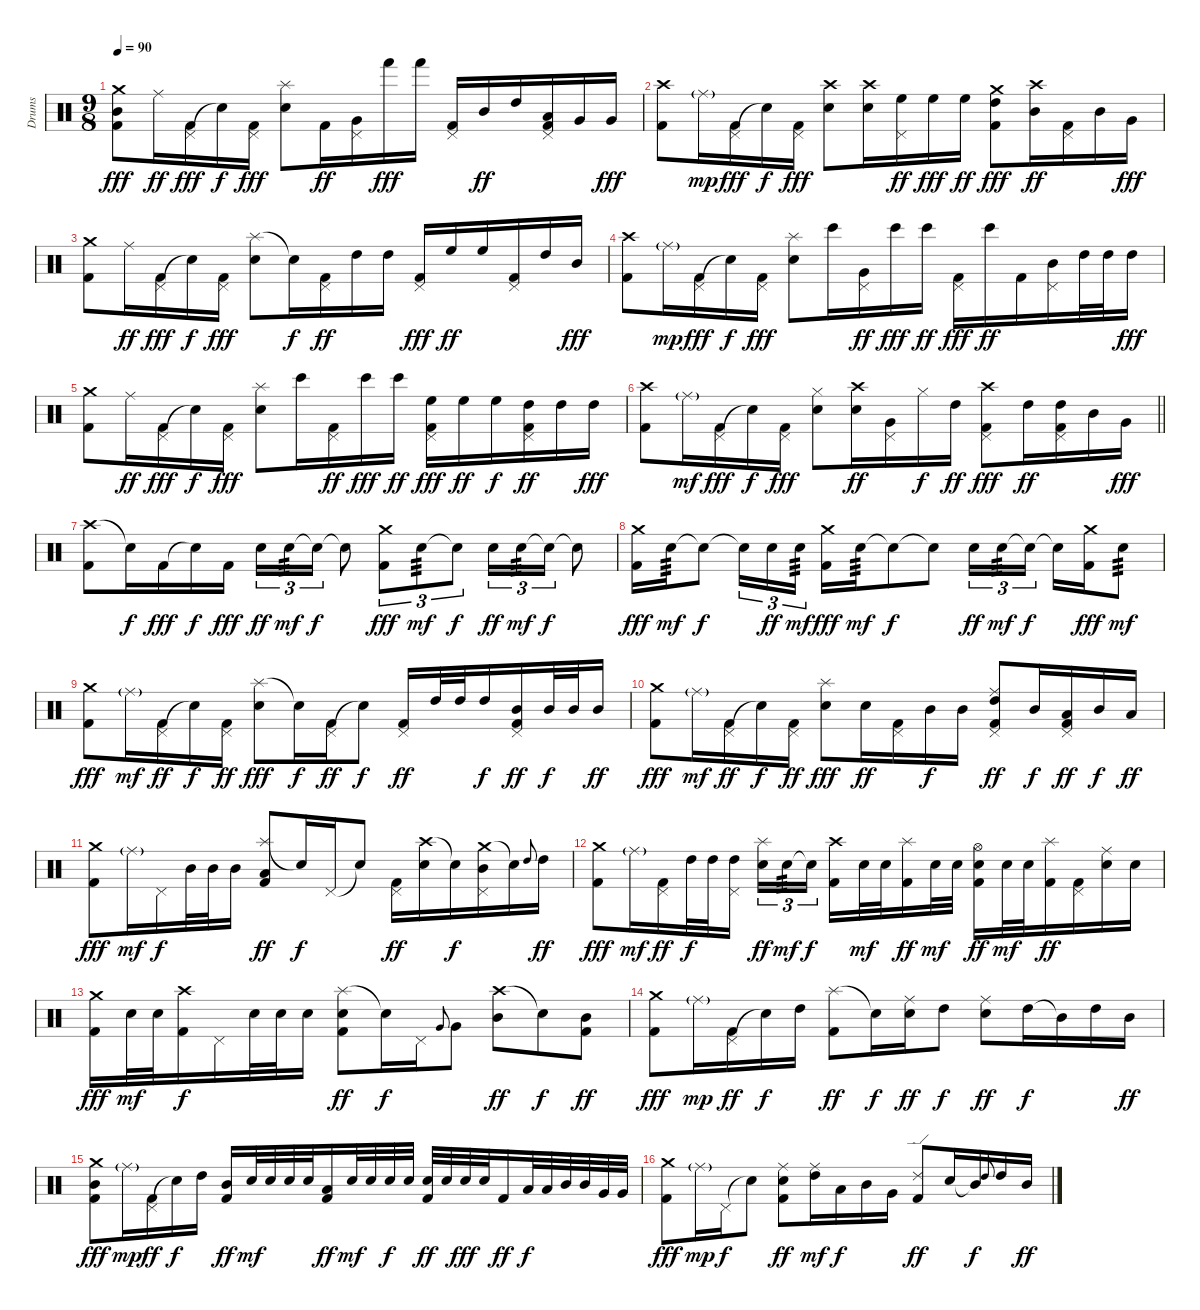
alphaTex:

\track ("Drums" "Drums") {instrument percussion}
\staff {score}
\articulation defaults
\ts (9 8)
\tempo 90
\clef neutral
\ks c
("Crash medium (hit)" "Mid Tom (hit)" "Kick (hit) 2").8{dy fff} "Ride (middle)".16{dy ff} ("Pedal Hi-Hat (hit)" "Kick (hit) 2").16{dy fff} "Snare (hit)"{t}.16{dy f} ("Pedal Hi-Hat (hit)" "Kick (hit) 2").16{dy fff} ("Splash (hit)" "Snare (hit) 2").8 "Kick (hit) 2".16{dy ff} ("Pedal Hi-Hat (hit)" "Very Low Tom (hit)").16 "Hand (hit)".16{dy fff} "Hand (hit)".16 ("Pedal Hi-Hat (hit)" "Kick (hit) 2").16 "Mid Tom (hit)".16{dy ff} "High Tom (hit)".16 ("Pedal Hi-Hat (hit)" "Low Tom (hit)" "Kick (hit) 2").16 "Very Low Tom (hit)".16 "Very Low Tom (hit)".16{dy fff} |
("Crash high (hit)" "Kick (hit) 2").8 "Ride (middle)"{g}.16{dy mp} ("Pedal Hi-Hat (hit)" "Kick (hit) 2").16{dy fff} "Snare (hit)"{t}.16{dy f} ("Pedal Hi-Hat (hit)" "Kick (hit) 2").16{dy fff} ("Crash high (hit)" "Snare (hit) 2").8 ("Crash high (hit)" "Snare (hit) 2").16 ("Pedal Hi-Hat (hit)" "High Floor Tom (hit)").16{dy ff} "High Floor Tom (hit)".16{dy fff} "High Floor Tom (hit)".16{dy ff} ("Crash medium (hit)" "High Tom (hit)" "Kick (hit) 2").8{dy fff} ("Crash high (hit)" "Mid Tom (hit)").16{dy ff} ("Pedal Hi-Hat (hit)" "Kick (hit) 2").16 "Mid Tom (hit)".16 "Very Low Tom (hit)".16{dy fff} |
("Crash medium (hit)" "Kick (hit) 2").8 "Ride (middle)".16{dy ff} ("Pedal Hi-Hat (hit)" "Kick (hit) 2").16{dy fff} "Snare (hit)"{t}.16{dy f} ("Pedal Hi-Hat (hit)" "Kick (hit) 2").16{dy fff} ("Splash (hit)" "Snare (hit) 2").8 "Snare (hit)"{t}.16{dy f} ("Pedal Hi-Hat (hit)" "Kick (hit) 2").16{dy ff} "High Tom (hit)".16 "High Tom (hit)".16 ("Pedal Hi-Hat (hit)" "Kick (hit) 2").16{dy fff} "High Floor Tom (hit)".16{dy ff} "High Floor Tom (hit)".16 ("Pedal Hi-Hat (hit)" "Kick (hit) 2").16 "High Tom (hit)".16 "Mid Tom (hit)".16{dy fff} |
("Crash high (hit)" "Kick (hit) 2").8 "Ride (middle)"{g}.16{dy mp} ("Pedal Hi-Hat (hit)" "Kick (hit) 2").16{dy fff} "Snare (hit)"{t}.16{dy f} ("Pedal Hi-Hat (hit)" "Kick (hit) 2").16{dy fff} ("Splash (hit)" "Snare (hit) 2").8 "Bongo High (hit)".16 ("Pedal Hi-Hat (hit)" "Very Low Tom (hit)").16{dy ff} "Bongo High (hit)".16{dy fff} "Bongo High (hit)".16{dy ff} ("Pedal Hi-Hat (hit)" "Kick (hit) 2").16{dy fff} "Bongo High (hit)".16{dy ff} "Kick (hit) 2".16 ("Pedal Hi-Hat (hit)" "Mid Tom (hit)").16 "High Tom (hit)".32 "High Tom (hit)".32 "High Tom (hit)".16{dy fff} |
("Crash medium (hit)" "Kick (hit) 2").8 "Ride (middle)".16{dy ff} ("Pedal Hi-Hat (hit)" "Kick (hit) 2").16{dy fff} "Snare (hit)"{t}.16{dy f} ("Pedal Hi-Hat (hit)" "Kick (hit) 2").16{dy fff} ("Splash (hit)" "Snare (hit) 2").8 "Bongo High (hit)".16 ("Pedal Hi-Hat (hit)" "Kick (hit) 2").16{dy ff} "Bongo High (hit)".16{dy fff} "Bongo High (hit)".16{dy ff} ("Pedal Hi-Hat (hit)" "High Floor Tom (hit)" "Kick (hit) 2").16{dy fff} "High Floor Tom (hit)".16{dy ff} "High Floor Tom (hit)".16{dy f} ("Pedal Hi-Hat (hit)" "High Tom (hit)" "Kick (hit) 2").16{dy ff} "High Tom (hit)".16 "High Tom (hit)".16{dy fff} |
\barLineRight lightlight
("Crash high (hit)" "Kick (hit) 2").8 "Ride (middle)"{g}.16{dy mf} ("Pedal Hi-Hat (hit)" "Kick (hit) 2").16{dy fff} "Snare (hit)"{t}.16{dy f} ("Pedal Hi-Hat (hit)" "Kick (hit) 2").16{dy fff} ("Hi-Hat (closed)" "Snare (hit) 2").8 ("Crash high (hit)" "Snare (hit) 2").16{dy ff} ("Pedal Hi-Hat (hit)" "Very Low Tom (hit)").16 "Hi-Hat (closed)".16{dy f} "High Tom (hit)".16{dy ff} ("Crash high (hit)" "Pedal Hi-Hat (hit)" "Kick (hit) 2").8{dy fff} "High Tom (hit)".16{dy ff} ("Pedal Hi-Hat (hit)" "High Tom (hit)" "Kick (hit) 2").16 "Mid Tom (hit)".16 "Very Low Tom (hit)".16{dy fff} |
\section ("" "")
("Crash high (hit)" "Kick (hit) 2").8 "Snare (hit)"{t}.16{dy f} "Kick (hit) 2".16{dy fff} "Snare (hit)"{t}.16{dy f} "Kick (hit) 2".16{dy fff} "Snare (hit) 2".16{tu (3 2) dy ff} "Snare (hit) 2".16{tu (3 2) tp 3 dy mf} "Snare (hit)"{t}.16{tu (3 2) dy f} "Snare (hit)"{t}.8 ("Crash medium (hit)" "Kick (hit) 2").8{tu (3 2) dy fff} "Snare (hit) 2".8{tu (3 2) tp 3 dy mf} "Snare (hit)"{t}.8{tu (3 2) dy f} "Snare (hit) 2".16{tu (3 2) dy ff} "Snare (hit) 2".16{tu (3 2) tp 3 dy mf} "Snare (hit)"{t}.16{tu (3 2) dy f} "Snare (hit)"{t}.8 |
("Crash medium (hit)" "Kick (hit) 2").16{dy fff} "Snare (hit) 2".16{tp 3 dy mf} "Snare (hit)"{t}.8{dy f} "Snare (hit)"{t}.16{tu (3 2)} "Snare (hit) 2".16{tu (3 2) dy ff} "Snare (hit) 2".16{tu (3 2) tp 3 dy mf} ("Crash medium (hit)" "Kick (hit) 2").16{dy fff} "Snare (hit) 2".16{tp 3 dy mf} "Snare (hit)"{t}.8{dy f} "Snare (hit)"{t}.8 "Snare (hit) 2".16{tu (3 2) dy ff} "Snare (hit) 2".16{tu (3 2) tp 3 dy mf} "Snare (hit)"{t}.16{tu (3 2) dy f beam splitsecondary} "Snare (hit)"{t}.16 ("Crash medium (hit)" "Kick (hit) 2").16{dy fff} "Snare (hit) 2".8{tp 3 dy mf} |
("Crash medium (hit)" "Kick (hit) 2").8{dy fff} "Ride (middle)"{g}.16{dy mf} ("Pedal Hi-Hat (hit)" "Kick (hit) 2").16{dy ff} "Snare (hit)"{t}.16{dy f} ("Pedal Hi-Hat (hit)" "Kick (hit) 2").16{dy ff} ("Splash (hit)" "Snare (hit) 2").8{dy fff} "Snare (hit)"{t}.16{dy f} ("Pedal Hi-Hat (hit)" "Kick (hit) 2").16{dy ff} "Snare (hit)"{t}.8{dy f} ("Pedal Hi-Hat (hit)" "Kick (hit) 2").16{dy ff} "High Tom (hit)".32 "High Tom (hit)".32 "High Tom (hit)".16{dy f} ("Pedal Hi-Hat (hit)" "Mid Tom (hit)" "Kick (hit) 2").16{dy ff} "Mid Tom (hit)".32{dy f} "Mid Tom (hit)".32 "Mid Tom (hit)".16{dy ff} |
("Crash medium (hit)" "Kick (hit) 2").8{dy fff} "Ride (middle)"{g}.16{dy mf} ("Pedal Hi-Hat (hit)" "Kick (hit) 2").16{dy ff} "Snare (hit)"{t}.16{dy f} ("Pedal Hi-Hat (hit)" "Kick (hit) 2").16{dy ff} ("Splash (hit)" "Snare (hit) 2").8{dy fff} "Snare (hit) 2".16{dy ff} ("Pedal Hi-Hat (hit)" "Kick (hit) 2").16 "Mid Tom (hit)".16{dy f} "Mid Tom (hit)".16 ("Ride (middle)" "Pedal Hi-Hat (hit)" "High Tom (hit)" "Kick (hit) 2").8{dy ff} "Mid Tom (hit)".16{dy f} ("Pedal Hi-Hat (hit)" "Low Tom (hit)" "Kick (hit) 2").16{dy ff} "Mid Tom (hit)".16{dy f} "Low Tom (hit)".16{dy ff} |
("Crash medium (hit)" "Kick (hit) 2").8{dy fff} "Ride (middle)"{g}.16{dy mf} "Pedal Hi-Hat (hit)".16{dy f} "Mid Tom (hit)".32 "Mid Tom (hit)".32 "Mid Tom (hit)".16 ("Splash (hit)" "Low Tom (hit)" "Kick (hit) 2").8{dy ff} "Snare (hit)"{t}.16{dy f} "Pedal Hi-Hat (hit)".16 "Snare (hit)"{t}.8 ("Pedal Hi-Hat (hit)" "Kick (hit) 2").16{dy ff} ("Crash high (hit)" "Snare (hit) 2").16 "Snare (hit)"{t}.16{dy f} ("Crash medium (hit)" "Pedal Hi-Hat (hit)" "Mid Tom (hit)").16 "Snare (hit)"{t}.16 "High Tom (hit)".8{gr onbeat} "High Tom (hit)".16{dy ff} |
("Crash medium (hit)" "Kick (hit) 2").8{dy fff} "Ride (middle)"{g}.16{dy mf} ("Pedal Hi-Hat (hit)" "Kick (hit) 2").16{dy ff} "High Tom (hit)".32{dy f} "High Tom (hit)".32 ("Pedal Hi-Hat (hit)" "High Tom (hit)").16 ("Splash (hit)" "Snare (hit) 2").16{tu (3 2) dy ff} "Snare (hit) 2".16{tu (3 2) tp 3 dy mf} "Snare (hit)"{t}.16{tu (3 2) dy f beam splitsecondary} ("Crash high (hit)" "Kick (hit) 2").16 "Snare (hit) 2".32{dy mf} "Snare (hit) 2".32 ("Splash (hit)" "Kick (hit) 2").16{dy ff} "Snare (hit) 2".32{dy mf} "Snare (hit) 2".32 ("Hi-Hat (open)" "Snare (hit) 2" "Kick (hit) 2").16{dy ff} "Snare (hit) 2".32{dy mf} "Snare (hit) 2".32 ("Splash (hit)" "Kick (hit) 2").16{dy ff} ("Pedal Hi-Hat (hit)" "Kick (hit) 2").16 ("Ride (middle)" "Snare (hit) 2").16 "Snare (hit) 2".16 |
("Crash medium (hit)" "Kick (hit) 2").16{dy fff} "Snare (hit) 2".32{dy mf} "Snare (hit) 2".32 ("Crash high (hit)" "Kick (hit) 2").16{dy f} "Pedal Hi-Hat (hit)".16 "Snare (hit) 2".32 "Snare (hit) 2".32 "Snare (hit) 2".16 ("Splash (hit)" "Snare (hit) 2" "Kick (hit) 2").8{dy ff} "Snare (hit)"{t}.16{dy f} "Pedal Hi-Hat (hit)".16 "Very Low Tom (hit)".8{gr onbeat} "Very Low Tom (hit)".8 ("Crash high (hit)" "Mid Tom (hit)").8{dy ff} "Snare (hit)"{t}.8{dy f} ("Mid Tom (hit)" "Kick (hit) 2").8{dy ff} |
("Crash medium (hit)" "Kick (hit) 2").8{dy fff} "Ride (middle)"{g}.16{dy mp} ("Pedal Hi-Hat (hit)" "Kick (hit) 2").16{dy ff} "Snare (hit)"{t}.16{dy f} "High Tom (hit)".16 ("Splash (hit)" "Kick (hit) 2").8{dy ff} "Snare (hit)"{t}.16{dy f} ("Ride (middle)" "Snare (hit) 2").16{dy ff} "High Tom (hit)".8{dy f} ("Ride (middle)" "Snare (hit) 2").8{dy ff} "High Tom (hit)".16{dy f} "Mid Tom (hit)"{t}.16 "High Tom (hit)".16 "Mid Tom (hit)".16{dy ff} |
("Crash medium (hit)" "Mid Tom (hit)" "Kick (hit) 2").8{dy fff} "Ride (middle)"{g}.16{dy mp} ("Pedal Hi-Hat (hit)" "Kick (hit) 2").16{dy ff} "Snare (hit)"{t}.16{dy f} "High Tom (hit)".16 ("Mid Tom (hit)" "Kick (hit) 2").16{dy ff} "Snare (hit) 2".32{dy mf} "Snare (hit) 2".32 "Snare (hit) 2".32 "Snare (hit) 2".32 ("Low Tom (hit)" "Kick (hit) 2").16{dy ff} "Snare (hit) 2".32{dy mf} "Snare (hit) 2".32 "Snare (hit) 2".32{dy f} "Snare (hit) 2".32 ("Snare (hit) 2" "Kick (hit) 2").32{dy ff} "Snare (hit) 2".32 "Snare (hit) 2".32{dy fff} "Snare (hit) 2".32 "Kick (hit) 2".16{dy ff} "Low Tom (hit)".32{dy f} "Low Tom (hit)".32 "Mid Tom (hit)".32 "Mid Tom (hit)".32 "Very Low Tom (hit)".32 "Very Low Tom (hit)".32 |
("Crash medium (hit)" "Kick (hit) 2").8{dy fff} "Ride (middle)"{g}.16{dy mp} "Pedal Hi-Hat (hit)".16{dy f} "Snare (hit)"{t}.8 ("Ride (middle)" "Snare (hit) 2" "Kick (hit) 2").8{dy ff} ("Ride (middle)" "High Tom (hit)").16{dy mf} "Low Tom (hit)".16{dy f} "Mid Tom (hit)".16 "Very Low Tom (hit)".16 ("Ride (edge) 2" "Kick (hit) 2").8{dy ff} "Snare (hit) 2".16 "Mid Tom (hit)"{t}.16{dy f} "High Tom (hit)".8{gr onbeat} "High Tom (hit)".16 "Mid Tom (hit)".16{dy ff}
